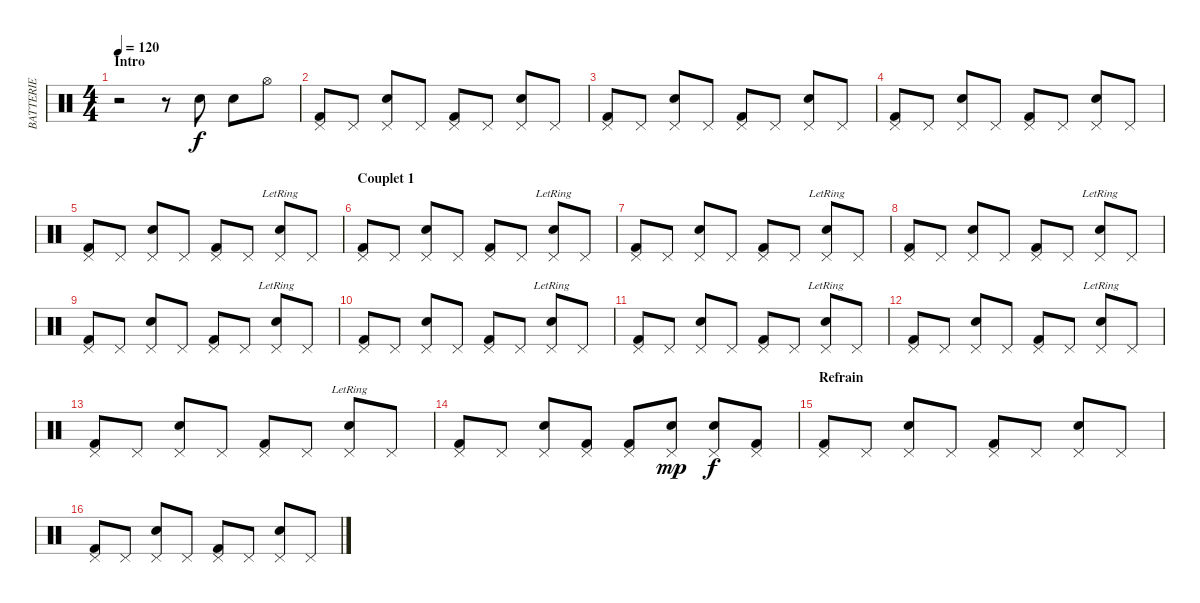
\track ("BATTERIE" "BATTERIE") {instrument percussion}
\staff {score}
\articulation defaults
\ts (4 4)
\section ("" "Intro")
\tempo 120
\clef neutral
\ks c
r.2{dy f} r.8 "Snare (hit) 2".8 "Snare (hit) 2".8 "Hi-Hat (open)".8 |
("Pedal Hi-Hat (hit)" "Kick (hit) 2").8 "Pedal Hi-Hat (hit)".8 ("Pedal Hi-Hat (hit)" "Snare (hit) 2").8 "Pedal Hi-Hat (hit)".8 ("Pedal Hi-Hat (hit)" "Kick (hit) 2").8 "Pedal Hi-Hat (hit)".8 ("Pedal Hi-Hat (hit)" "Snare (hit) 2").8 "Pedal Hi-Hat (hit)".8 |
("Pedal Hi-Hat (hit)" "Kick (hit) 2").8 "Pedal Hi-Hat (hit)".8 ("Pedal Hi-Hat (hit)" "Snare (hit) 2").8 "Pedal Hi-Hat (hit)".8 ("Pedal Hi-Hat (hit)" "Kick (hit) 2").8 "Pedal Hi-Hat (hit)".8 ("Pedal Hi-Hat (hit)" "Snare (hit) 2").8 "Pedal Hi-Hat (hit)".8 |
("Pedal Hi-Hat (hit)" "Kick (hit) 2").8 "Pedal Hi-Hat (hit)".8 ("Pedal Hi-Hat (hit)" "Snare (hit) 2").8 "Pedal Hi-Hat (hit)".8 ("Pedal Hi-Hat (hit)" "Kick (hit) 2").8 "Pedal Hi-Hat (hit)".8 ("Pedal Hi-Hat (hit)" "Snare (hit) 2").8 "Pedal Hi-Hat (hit)".8 |
("Pedal Hi-Hat (hit)" "Kick (hit) 2").8 "Pedal Hi-Hat (hit)".8 ("Pedal Hi-Hat (hit)" "Snare (hit) 2").8 "Pedal Hi-Hat (hit)".8 ("Pedal Hi-Hat (hit)" "Kick (hit) 2").8 "Pedal Hi-Hat (hit)".8 ("Pedal Hi-Hat (hit)" "Snare (hit) 2"{lr}).8 "Pedal Hi-Hat (hit)".8 |
\section ("" "Couplet 1")
("Pedal Hi-Hat (hit)" "Kick (hit) 2").8 "Pedal Hi-Hat (hit)".8 ("Pedal Hi-Hat (hit)" "Snare (hit) 2").8 "Pedal Hi-Hat (hit)".8 ("Pedal Hi-Hat (hit)" "Kick (hit) 2").8 "Pedal Hi-Hat (hit)".8 ("Pedal Hi-Hat (hit)" "Snare (hit) 2"{lr}).8 "Pedal Hi-Hat (hit)".8 |
("Pedal Hi-Hat (hit)" "Kick (hit) 2").8 "Pedal Hi-Hat (hit)".8 ("Pedal Hi-Hat (hit)" "Snare (hit) 2").8 "Pedal Hi-Hat (hit)".8 ("Pedal Hi-Hat (hit)" "Kick (hit) 2").8 "Pedal Hi-Hat (hit)".8 ("Pedal Hi-Hat (hit)" "Snare (hit) 2"{lr}).8 "Pedal Hi-Hat (hit)".8 |
("Pedal Hi-Hat (hit)" "Kick (hit) 2").8 "Pedal Hi-Hat (hit)".8 ("Pedal Hi-Hat (hit)" "Snare (hit) 2").8 "Pedal Hi-Hat (hit)".8 ("Pedal Hi-Hat (hit)" "Kick (hit) 2").8 "Pedal Hi-Hat (hit)".8 ("Pedal Hi-Hat (hit)" "Snare (hit) 2"{lr}).8 "Pedal Hi-Hat (hit)".8 |
("Pedal Hi-Hat (hit)" "Kick (hit) 2").8 "Pedal Hi-Hat (hit)".8 ("Pedal Hi-Hat (hit)" "Snare (hit) 2").8 "Pedal Hi-Hat (hit)".8 ("Pedal Hi-Hat (hit)" "Kick (hit) 2").8 "Pedal Hi-Hat (hit)".8 ("Pedal Hi-Hat (hit)" "Snare (hit) 2"{lr}).8 "Pedal Hi-Hat (hit)".8 |
("Pedal Hi-Hat (hit)" "Kick (hit) 2").8 "Pedal Hi-Hat (hit)".8 ("Pedal Hi-Hat (hit)" "Snare (hit) 2").8 "Pedal Hi-Hat (hit)".8 ("Pedal Hi-Hat (hit)" "Kick (hit) 2").8 "Pedal Hi-Hat (hit)".8 ("Pedal Hi-Hat (hit)" "Snare (hit) 2"{lr}).8 "Pedal Hi-Hat (hit)".8 |
("Pedal Hi-Hat (hit)" "Kick (hit) 2").8 "Pedal Hi-Hat (hit)".8 ("Pedal Hi-Hat (hit)" "Snare (hit) 2").8 "Pedal Hi-Hat (hit)".8 ("Pedal Hi-Hat (hit)" "Kick (hit) 2").8 "Pedal Hi-Hat (hit)".8 ("Pedal Hi-Hat (hit)" "Snare (hit) 2"{lr}).8 "Pedal Hi-Hat (hit)".8 |
("Pedal Hi-Hat (hit)" "Kick (hit) 2").8 "Pedal Hi-Hat (hit)".8 ("Pedal Hi-Hat (hit)" "Snare (hit) 2").8 "Pedal Hi-Hat (hit)".8 ("Pedal Hi-Hat (hit)" "Kick (hit) 2").8 "Pedal Hi-Hat (hit)".8 ("Pedal Hi-Hat (hit)" "Snare (hit) 2"{lr}).8 "Pedal Hi-Hat (hit)".8 |
("Pedal Hi-Hat (hit)" "Kick (hit) 2").8 "Pedal Hi-Hat (hit)".8 ("Pedal Hi-Hat (hit)" "Snare (hit) 2").8 "Pedal Hi-Hat (hit)".8 ("Pedal Hi-Hat (hit)" "Kick (hit) 2").8 "Pedal Hi-Hat (hit)".8 ("Pedal Hi-Hat (hit)" "Snare (hit) 2"{lr}).8 "Pedal Hi-Hat (hit)".8 |
("Pedal Hi-Hat (hit)" "Kick (hit) 2").8 "Pedal Hi-Hat (hit)".8 ("Pedal Hi-Hat (hit)" "Snare (hit) 2").8 ("Pedal Hi-Hat (hit)" "Kick (hit) 2").8 ("Pedal Hi-Hat (hit)" "Kick (hit) 2").8 ("Pedal Hi-Hat (hit)" "Snare (hit) 2").8{dy mp} ("Pedal Hi-Hat (hit)" "Snare (hit) 2").8{dy f} ("Pedal Hi-Hat (hit)" "Kick (hit) 2").8 |
\section ("" "Refrain")
("Pedal Hi-Hat (hit)" "Kick (hit) 2").8 "Pedal Hi-Hat (hit)".8 ("Pedal Hi-Hat (hit)" "Snare (hit) 2").8 "Pedal Hi-Hat (hit)".8 ("Pedal Hi-Hat (hit)" "Kick (hit) 2").8 "Pedal Hi-Hat (hit)".8 ("Pedal Hi-Hat (hit)" "Snare (hit) 2").8 "Pedal Hi-Hat (hit)".8 |
("Pedal Hi-Hat (hit)" "Kick (hit) 2").8 "Pedal Hi-Hat (hit)".8 ("Pedal Hi-Hat (hit)" "Snare (hit) 2").8 "Pedal Hi-Hat (hit)".8 ("Pedal Hi-Hat (hit)" "Kick (hit) 2").8 "Pedal Hi-Hat (hit)".8 ("Pedal Hi-Hat (hit)" "Snare (hit) 2").8 "Pedal Hi-Hat (hit)".8
